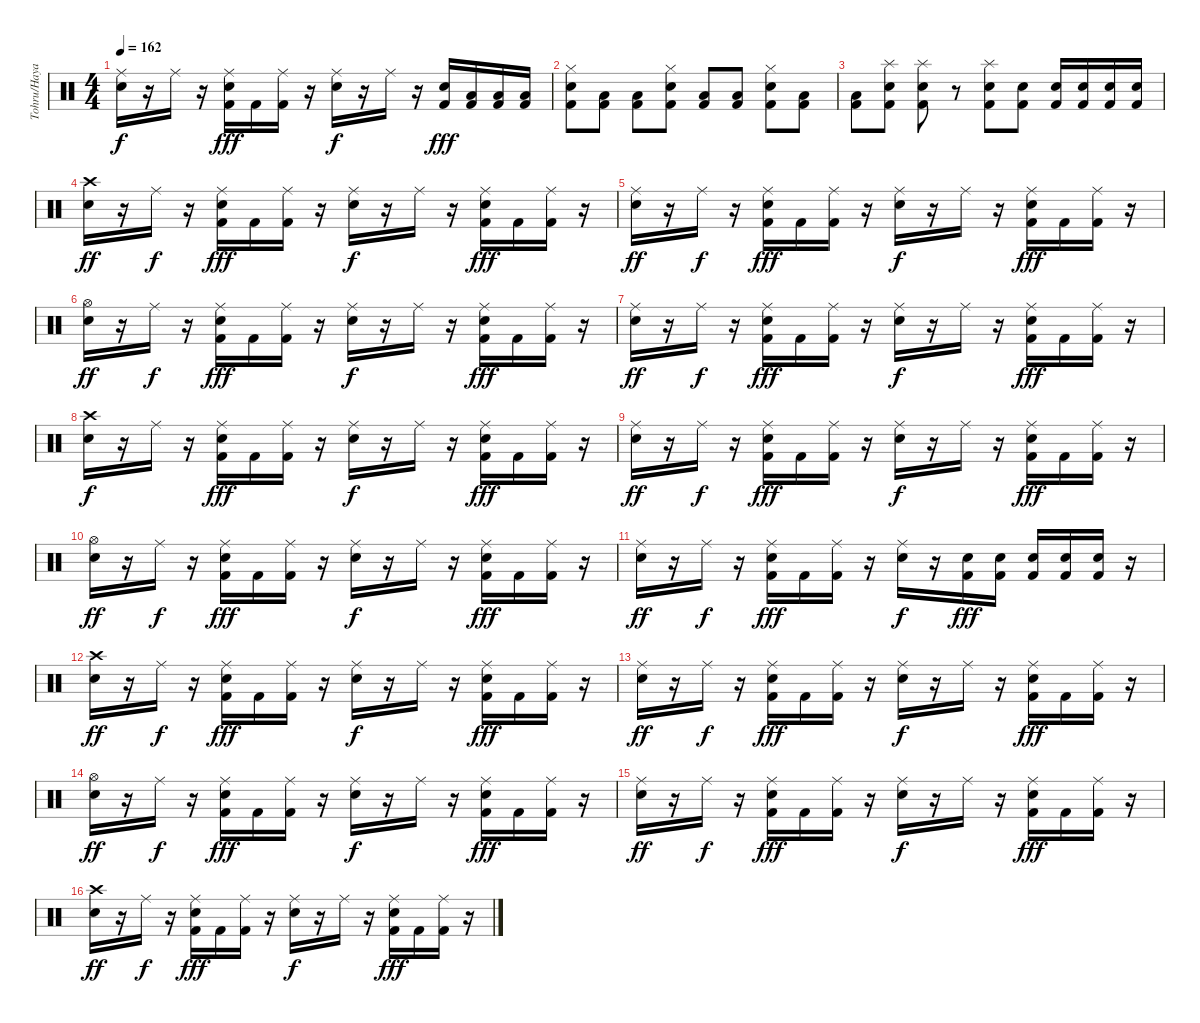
\track ("Tohru/Hayato" "Tohru/Haya") {instrument percussion}
\staff {score}
\articulation defaults
\ts (4 4)
\tempo 162
\clef neutral
\ks c
("Ride (middle)" "Electric Snare (hit)").16{dy f} r.16 "Ride (middle)".16 r.16 ("Ride (middle)" "Electric Snare (hit)" "Kick (hit) 2").16{dy fff} "Kick (hit) 2".16 ("Ride (middle)" "Kick (hit) 2").16 r.16 ("Ride (middle)" "Electric Snare (hit)").16{dy f} r.16 "Ride (middle)".16 r.16 ("Electric Snare (hit)" "Kick (hit) 2").16{dy fff} ("Low Tom (hit)" "Kick (hit) 2").16 ("Low Tom (hit)" "Kick (hit) 2").16 ("Low Tom (hit)" "Kick (hit) 2").16 |
("Hi-Hat (closed)" "Electric Snare (hit)" "Kick (hit) 2").8 ("Low Tom (hit)" "Kick (hit) 2").8 ("Low Tom (hit)" "Kick (hit) 2").8 ("Hi-Hat (closed)" "Electric Snare (hit)" "Kick (hit) 2").8 ("Low Tom (hit)" "Kick (hit) 2").8 ("Low Tom (hit)" "Kick (hit) 2").8 ("Hi-Hat (closed)" "Electric Snare (hit)" "Kick (hit) 2").8 ("Low Tom (hit)" "Kick (hit) 2").8 |
("Low Tom (hit)" "Kick (hit) 2").8 ("Splash (hit)" "Electric Snare (hit)" "Kick (hit) 2").8 ("Splash (hit)" "Electric Snare (hit)" "Kick (hit) 2").8 r.8 ("Splash (hit)" "Electric Snare (hit)" "Kick (hit) 2").8 ("Electric Snare (hit)" "Kick (hit) 2").8 ("Electric Snare (hit)" "Kick (hit) 2").16 ("Electric Snare (hit)" "Kick (hit) 2").16 ("Electric Snare (hit)" "Kick (hit) 2").16 ("Electric Snare (hit)" "Kick (hit) 2").16 |
("Crash high (hit)" "Electric Snare (hit)").16{dy ff} r.16 "Ride (middle)".16{dy f} r.16 ("Ride (middle)" "Electric Snare (hit)" "Kick (hit) 2").16{dy fff} "Kick (hit) 2".16 ("Ride (middle)" "Kick (hit) 2").16 r.16 ("Ride (middle)" "Electric Snare (hit)").16{dy f} r.16 "Ride (middle)".16 r.16 ("Ride (middle)" "Electric Snare (hit)" "Kick (hit) 2").16{dy fff} "Kick (hit) 2".16 ("Ride (middle)" "Kick (hit) 2").16 r.16 |
("Ride (middle)" "Electric Snare (hit)").16{dy ff} r.16 "Ride (middle)".16{dy f} r.16 ("Ride (middle)" "Electric Snare (hit)" "Kick (hit) 2").16{dy fff} "Kick (hit) 2".16 ("Ride (middle)" "Kick (hit) 2").16 r.16 ("Ride (middle)" "Electric Snare (hit)").16{dy f} r.16 "Ride (middle)".16 r.16 ("Ride (middle)" "Electric Snare (hit)" "Kick (hit) 2").16{dy fff} "Kick (hit) 2".16 ("Ride (middle)" "Kick (hit) 2").16 r.16 |
("Hi-Hat (open)" "Electric Snare (hit)").16{dy ff} r.16 "Ride (middle)".16{dy f} r.16 ("Ride (middle)" "Electric Snare (hit)" "Kick (hit) 2").16{dy fff} "Kick (hit) 2".16 ("Ride (middle)" "Kick (hit) 2").16 r.16 ("Ride (middle)" "Electric Snare (hit)").16{dy f} r.16 "Ride (middle)".16 r.16 ("Ride (middle)" "Electric Snare (hit)" "Kick (hit) 2").16{dy fff} "Kick (hit) 2".16 ("Ride (middle)" "Kick (hit) 2").16 r.16 |
("Ride (middle)" "Electric Snare (hit)").16{dy ff} r.16 "Ride (middle)".16{dy f} r.16 ("Ride (middle)" "Electric Snare (hit)" "Kick (hit) 2").16{dy fff} "Kick (hit) 2".16 ("Ride (middle)" "Kick (hit) 2").16 r.16 ("Ride (middle)" "Electric Snare (hit)").16{dy f} r.16 "Ride (middle)".16 r.16 ("Ride (middle)" "Electric Snare (hit)" "Kick (hit) 2").16{dy fff} "Kick (hit) 2".16 ("Ride (middle)" "Kick (hit) 2").16 r.16 |
("Crash high (hit)" "Electric Snare (hit)").16{dy f} r.16 "Ride (middle)".16 r.16 ("Ride (middle)" "Electric Snare (hit)" "Kick (hit) 2").16{dy fff} "Kick (hit) 2".16 ("Ride (middle)" "Kick (hit) 2").16 r.16 ("Ride (middle)" "Electric Snare (hit)").16{dy f} r.16 "Ride (middle)".16 r.16 ("Ride (middle)" "Electric Snare (hit)" "Kick (hit) 2").16{dy fff} "Kick (hit) 2".16 ("Ride (middle)" "Kick (hit) 2").16 r.16 |
("Ride (middle)" "Electric Snare (hit)").16{dy ff} r.16 "Ride (middle)".16{dy f} r.16 ("Ride (middle)" "Electric Snare (hit)" "Kick (hit) 2").16{dy fff} "Kick (hit) 2".16 ("Ride (middle)" "Kick (hit) 2").16 r.16 ("Ride (middle)" "Electric Snare (hit)").16{dy f} r.16 "Ride (middle)".16 r.16 ("Ride (middle)" "Electric Snare (hit)" "Kick (hit) 2").16{dy fff} "Kick (hit) 2".16 ("Ride (middle)" "Kick (hit) 2").16 r.16 |
("Hi-Hat (open)" "Electric Snare (hit)").16{dy ff} r.16 "Ride (middle)".16{dy f} r.16 ("Ride (middle)" "Electric Snare (hit)" "Kick (hit) 2").16{dy fff} "Kick (hit) 2".16 ("Ride (middle)" "Kick (hit) 2").16 r.16 ("Ride (middle)" "Electric Snare (hit)").16{dy f} r.16 "Ride (middle)".16 r.16 ("Ride (middle)" "Electric Snare (hit)" "Kick (hit) 2").16{dy fff} "Kick (hit) 2".16 ("Ride (middle)" "Kick (hit) 2").16 r.16 |
("Ride (middle)" "Electric Snare (hit)").16{dy ff} r.16 "Ride (middle)".16{dy f} r.16 ("Ride (middle)" "Electric Snare (hit)" "Kick (hit) 2").16{dy fff} "Kick (hit) 2".16 ("Ride (middle)" "Kick (hit) 2").16 r.16 ("Ride (middle)" "Electric Snare (hit)").16{dy f} r.16 ("Electric Snare (hit)" "Kick (hit) 2").16{dy fff} ("Electric Snare (hit)" "Kick (hit) 2").16 ("Electric Snare (hit)" "Kick (hit) 2").16 ("Electric Snare (hit)" "Kick (hit) 2").16 ("Electric Snare (hit)" "Kick (hit) 2").16 r.16 |
("Crash high (hit)" "Electric Snare (hit)").16{dy ff} r.16 "Ride (middle)".16{dy f} r.16 ("Ride (middle)" "Electric Snare (hit)" "Kick (hit) 2").16{dy fff} "Kick (hit) 2".16 ("Ride (middle)" "Kick (hit) 2").16 r.16 ("Ride (middle)" "Electric Snare (hit)").16{dy f} r.16 "Ride (middle)".16 r.16 ("Ride (middle)" "Electric Snare (hit)" "Kick (hit) 2").16{dy fff} "Kick (hit) 2".16 ("Ride (middle)" "Kick (hit) 2").16 r.16 |
("Ride (middle)" "Electric Snare (hit)").16{dy ff} r.16 "Ride (middle)".16{dy f} r.16 ("Ride (middle)" "Electric Snare (hit)" "Kick (hit) 2").16{dy fff} "Kick (hit) 2".16 ("Ride (middle)" "Kick (hit) 2").16 r.16 ("Ride (middle)" "Electric Snare (hit)").16{dy f} r.16 "Ride (middle)".16 r.16 ("Ride (middle)" "Electric Snare (hit)" "Kick (hit) 2").16{dy fff} "Kick (hit) 2".16 ("Ride (middle)" "Kick (hit) 2").16 r.16 |
("Hi-Hat (open)" "Electric Snare (hit)").16{dy ff} r.16 "Ride (middle)".16{dy f} r.16 ("Ride (middle)" "Electric Snare (hit)" "Kick (hit) 2").16{dy fff} "Kick (hit) 2".16 ("Ride (middle)" "Kick (hit) 2").16 r.16 ("Ride (middle)" "Electric Snare (hit)").16{dy f} r.16 "Ride (middle)".16 r.16 ("Ride (middle)" "Electric Snare (hit)" "Kick (hit) 2").16{dy fff} "Kick (hit) 2".16 ("Ride (middle)" "Kick (hit) 2").16 r.16 |
("Ride (middle)" "Electric Snare (hit)").16{dy ff} r.16 "Ride (middle)".16{dy f} r.16 ("Ride (middle)" "Electric Snare (hit)" "Kick (hit) 2").16{dy fff} "Kick (hit) 2".16 ("Ride (middle)" "Kick (hit) 2").16 r.16 ("Ride (middle)" "Electric Snare (hit)").16{dy f} r.16 "Ride (middle)".16 r.16 ("Ride (middle)" "Electric Snare (hit)" "Kick (hit) 2").16{dy fff} "Kick (hit) 2".16 ("Ride (middle)" "Kick (hit) 2").16 r.16 |
("Crash high (hit)" "Electric Snare (hit)").16{dy ff} r.16 "Ride (middle)".16{dy f} r.16 ("Ride (middle)" "Electric Snare (hit)" "Kick (hit) 2").16{dy fff} "Kick (hit) 2".16 ("Ride (middle)" "Kick (hit) 2").16 r.16 ("Ride (middle)" "Electric Snare (hit)").16{dy f} r.16 "Ride (middle)".16 r.16 ("Ride (middle)" "Electric Snare (hit)" "Kick (hit) 2").16{dy fff} "Kick (hit) 2".16 ("Ride (middle)" "Kick (hit) 2").16 r.16
